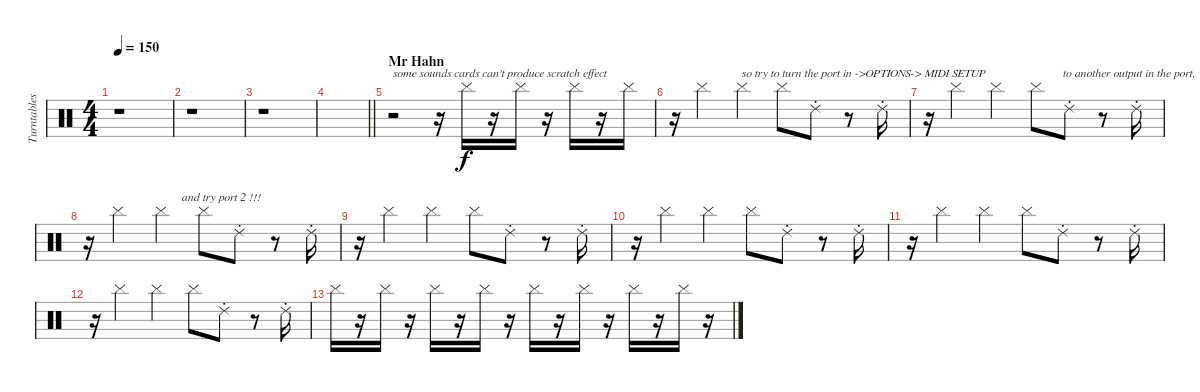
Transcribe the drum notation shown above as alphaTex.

\track ("Turntables [Joe Hahn]" "Turntables") {instrument percussion}
\staff {score}
\articulation defaults
\ts (4 4)
\tempo 150
\clef neutral
\ks c
r.1{dy f} |
r.1 |
r.1 |
\barLineRight lightlight
|
\section ("" "Mr Hahn")
r.2{txt "some sounds cards can't produce scratch effect"} r.16 "Cymbal (hit)".16 r.16 "Cymbal (hit)".16 r.16 "Cymbal (hit)".16 r.16 "Cymbal (hit)".16 |
r.16 "Cymbal (hit)".4 "Cymbal (hit)".4{txt "so try to turn the port in ->OPTIONS-> MIDI SETUP"} "Cymbal (hit)".8 "Ride (choke) 2".8 r.8 "Ride (choke) 2".16 |
r.16 "Cymbal (hit)".4 "Cymbal (hit)".4 "Cymbal (hit)".8{txt "         to another output in the port,"} "Ride (choke) 2".8 r.8 "Ride (choke) 2".16 |
r.16 "Cymbal (hit)".4 "Cymbal (hit)".4{txt "       and try port 2 !!!"} "Cymbal (hit)".8 "Ride (choke) 2".8 r.8 "Ride (choke) 2".16 |
r.16 "Cymbal (hit)".4 "Cymbal (hit)".4 "Cymbal (hit)".8 "Ride (choke) 2".8 r.8 "Ride (choke) 2".16 |
r.16 "Cymbal (hit)".4 "Cymbal (hit)".4 "Cymbal (hit)".8 "Ride (choke) 2".8 r.8 "Ride (choke) 2".16 |
r.16 "Cymbal (hit)".4 "Cymbal (hit)".4 "Cymbal (hit)".8 "Ride (choke) 2".8 r.8 "Ride (choke) 2".16 |
r.16 "Cymbal (hit)".4 "Cymbal (hit)".4 "Cymbal (hit)".8 "Ride (choke) 2".8 r.8 "Ride (choke) 2".16 |
"Cymbal (hit)".16 r.16 "Cymbal (hit)".16 r.16 "Cymbal (hit)".16 r.16 "Cymbal (hit)".16 r.16 "Cymbal (hit)".16 r.16 "Cymbal (hit)".16 r.16 "Cymbal (hit)".16 r.16 "Cymbal (hit)".16 r.16
